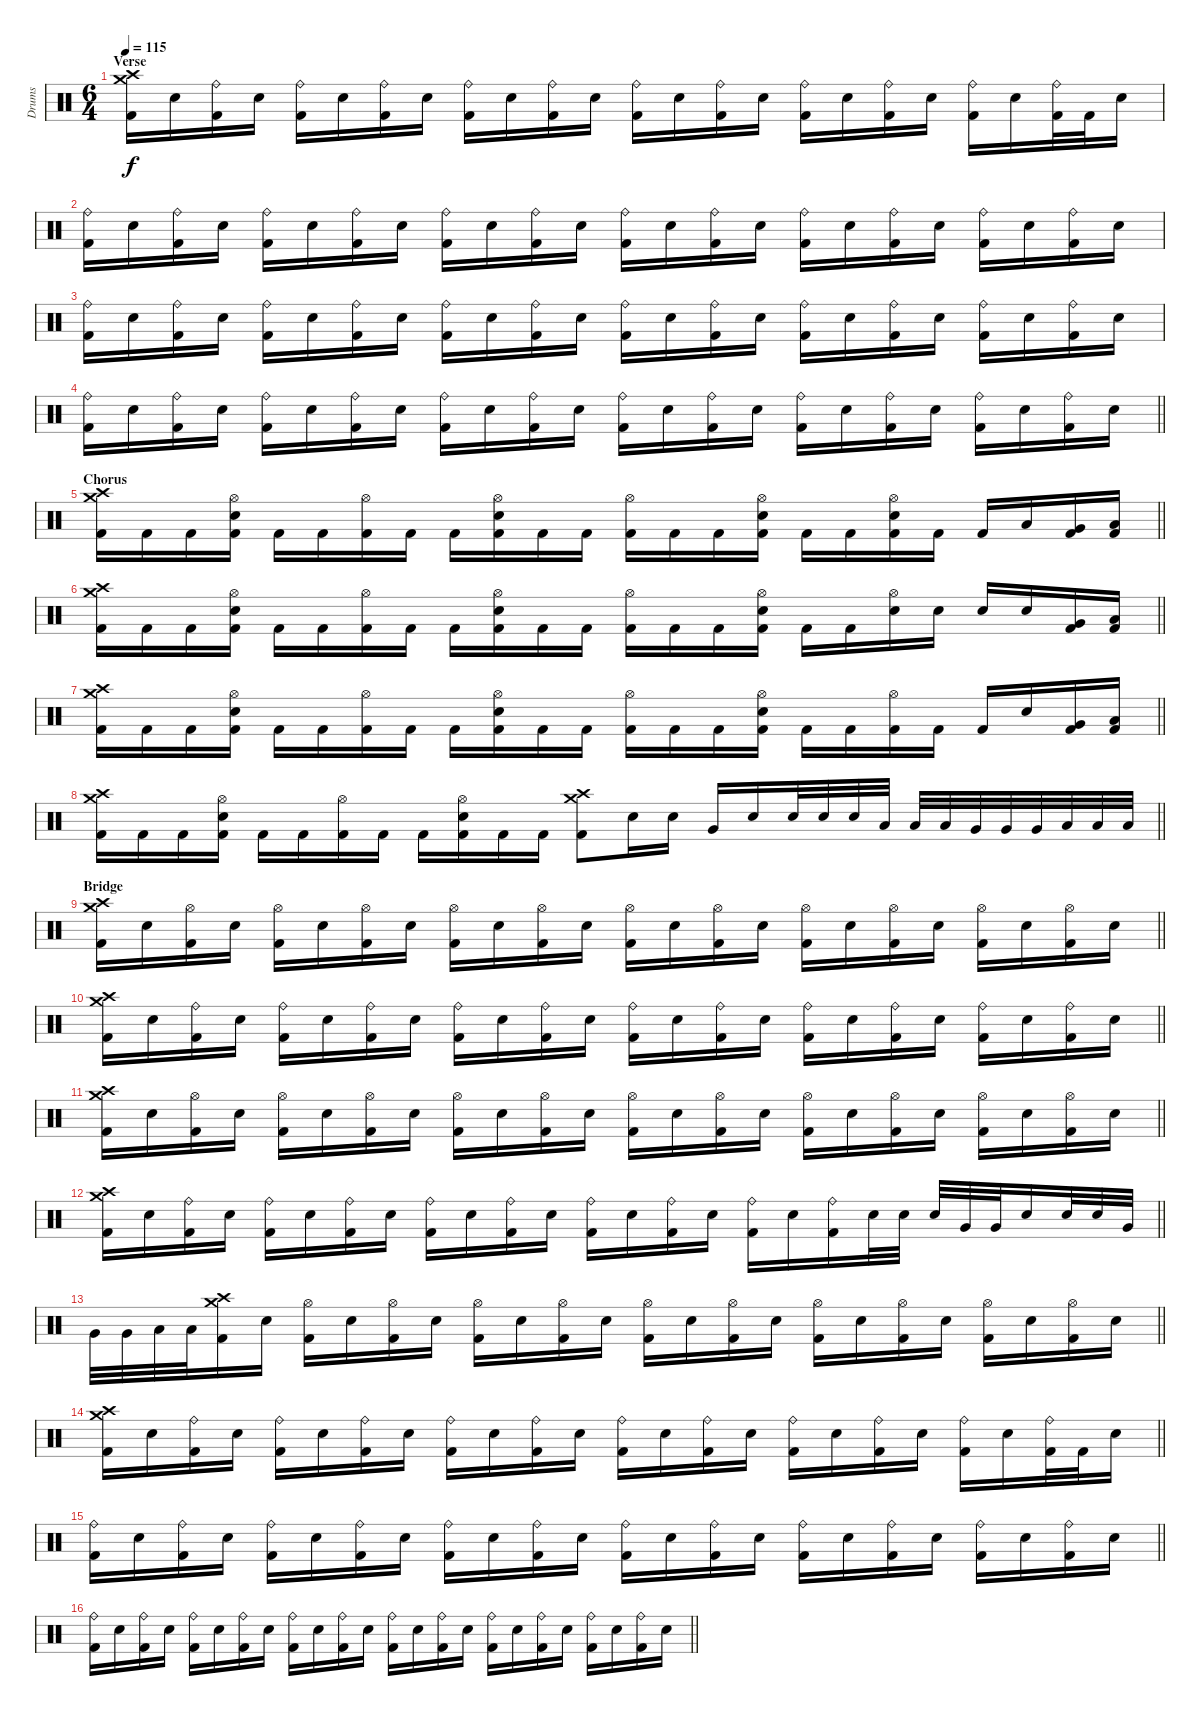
\track ("Drums" "Drums") {instrument percussion}
\staff {score}
\articulation defaults
\ts (6 4)
\section ("" "Verse")
\tempo 115
\clef neutral
\ks c
("Crash medium (hit)" "Crash high (hit)" "Kick (hit) 2").16{dy f} "Snare (hit) 2".16 ("Ride (bell)" "Kick (hit) 2").16 "Snare (hit) 2".16 ("Ride (bell)" "Kick (hit) 2").16 "Snare (hit) 2".16 ("Ride (bell)" "Kick (hit) 2").16 "Snare (hit) 2".16 ("Ride (bell)" "Kick (hit) 2").16 "Snare (hit) 2".16 ("Ride (bell)" "Kick (hit) 2").16 "Snare (hit) 2".16 ("Ride (bell)" "Kick (hit) 2").16 "Snare (hit) 2".16 ("Ride (bell)" "Kick (hit) 2").16 "Snare (hit) 2".16 ("Ride (bell)" "Kick (hit) 2").16 "Snare (hit) 2".16 ("Ride (bell)" "Kick (hit) 2").16 "Snare (hit) 2".16 ("Ride (bell)" "Kick (hit) 2").16 "Snare (hit) 2".16 ("Ride (bell)" "Kick (hit) 2").32 "Kick (hit) 2".32 "Snare (hit) 2".16 |
("Ride (bell)" "Kick (hit) 2").16 "Snare (hit) 2".16 ("Ride (bell)" "Kick (hit) 2").16 "Snare (hit) 2".16 ("Ride (bell)" "Kick (hit) 2").16 "Snare (hit) 2".16 ("Ride (bell)" "Kick (hit) 2").16 "Snare (hit) 2".16 ("Ride (bell)" "Kick (hit) 2").16 "Snare (hit) 2".16 ("Ride (bell)" "Kick (hit) 2").16 "Snare (hit) 2".16 ("Ride (bell)" "Kick (hit) 2").16 "Snare (hit) 2".16 ("Ride (bell)" "Kick (hit) 2").16 "Snare (hit) 2".16 ("Ride (bell)" "Kick (hit) 2").16 "Snare (hit) 2".16 ("Ride (bell)" "Kick (hit) 2").16 "Snare (hit) 2".16 ("Ride (bell)" "Kick (hit) 2").16 "Snare (hit) 2".16 ("Ride (bell)" "Kick (hit) 2").16 "Snare (hit) 2".16 |
("Ride (bell)" "Kick (hit) 2").16 "Snare (hit) 2".16 ("Ride (bell)" "Kick (hit) 2").16 "Snare (hit) 2".16 ("Ride (bell)" "Kick (hit) 2").16 "Snare (hit) 2".16 ("Ride (bell)" "Kick (hit) 2").16 "Snare (hit) 2".16 ("Ride (bell)" "Kick (hit) 2").16 "Snare (hit) 2".16 ("Ride (bell)" "Kick (hit) 2").16 "Snare (hit) 2".16 ("Ride (bell)" "Kick (hit) 2").16 "Snare (hit) 2".16 ("Ride (bell)" "Kick (hit) 2").16 "Snare (hit) 2".16 ("Ride (bell)" "Kick (hit) 2").16 "Snare (hit) 2".16 ("Ride (bell)" "Kick (hit) 2").16 "Snare (hit) 2".16 ("Ride (bell)" "Kick (hit) 2").16 "Snare (hit) 2".16 ("Ride (bell)" "Kick (hit) 2").16 "Snare (hit) 2".16 |
\barLineRight lightlight
("Ride (bell)" "Kick (hit) 2").16 "Snare (hit) 2".16 ("Ride (bell)" "Kick (hit) 2").16 "Snare (hit) 2".16 ("Ride (bell)" "Kick (hit) 2").16 "Snare (hit) 2".16 ("Ride (bell)" "Kick (hit) 2").16 "Snare (hit) 2".16 ("Ride (bell)" "Kick (hit) 2").16 "Snare (hit) 2".16 ("Ride (bell)" "Kick (hit) 2").16 "Snare (hit) 2".16 ("Ride (bell)" "Kick (hit) 2").16 "Snare (hit) 2".16 ("Ride (bell)" "Kick (hit) 2").16 "Snare (hit) 2".16 ("Ride (bell)" "Kick (hit) 2").16 "Snare (hit) 2".16 ("Ride (bell)" "Kick (hit) 2").16 "Snare (hit) 2".16 ("Ride (bell)" "Kick (hit) 2").16 "Snare (hit) 2".16 ("Ride (bell)" "Kick (hit) 2").16 "Snare (hit) 2".16 |
\section ("" "Chorus")
\barLineRight lightlight
("Crash medium (hit)" "Crash high (hit)" "Kick (hit) 2").16 "Kick (hit) 2".16 "Kick (hit) 2".16 ("Hi-Hat (open)" "Snare (hit) 2" "Kick (hit) 2").16 "Kick (hit) 2".16 "Kick (hit) 2".16 ("Hi-Hat (open)" "Kick (hit) 2").16 "Kick (hit) 2".16 "Kick (hit) 2".16 ("Hi-Hat (open)" "Snare (hit) 2" "Kick (hit) 2").16 "Kick (hit) 2".16 "Kick (hit) 2".16 ("Hi-Hat (open)" "Kick (hit) 2").16 "Kick (hit) 2".16 "Kick (hit) 2".16 ("Hi-Hat (open)" "Snare (hit) 2" "Kick (hit) 2").16 "Kick (hit) 2".16 "Kick (hit) 2".16 ("Hi-Hat (open)" "Snare (hit) 2" "Kick (hit) 2").16 "Kick (hit) 2".16 "Kick (hit) 2".16 "Low Tom (hit)".16 ("Very Low Tom (hit)" "Kick (hit) 2").16 ("Low Floor Tom (hit)" "Kick (hit) 2").16 |
\barLineRight lightlight
("Crash medium (hit)" "Crash high (hit)" "Kick (hit) 2").16 "Kick (hit) 2".16 "Kick (hit) 2".16 ("Hi-Hat (open)" "Snare (hit) 2" "Kick (hit) 2").16 "Kick (hit) 2".16 "Kick (hit) 2".16 ("Hi-Hat (open)" "Kick (hit) 2").16 "Kick (hit) 2".16 "Kick (hit) 2".16 ("Hi-Hat (open)" "Snare (hit) 2" "Kick (hit) 2").16 "Kick (hit) 2".16 "Kick (hit) 2".16 ("Hi-Hat (open)" "Kick (hit) 2").16 "Kick (hit) 2".16 "Kick (hit) 2".16 ("Hi-Hat (open)" "Snare (hit) 2" "Kick (hit) 2").16 "Kick (hit) 2".16 "Kick (hit) 2".16 ("Hi-Hat (open)" "Snare (hit) 2").16 "Snare (hit) 2".16 "Snare (hit) 2".16 "Snare (hit) 2".16 ("Very Low Tom (hit)" "Kick (hit) 2").16 ("Low Floor Tom (hit)" "Kick (hit) 2").16 |
\barLineRight lightlight
("Crash medium (hit)" "Crash high (hit)" "Kick (hit) 2").16 "Kick (hit) 2".16 "Kick (hit) 2".16 ("Hi-Hat (open)" "Snare (hit) 2" "Kick (hit) 2").16 "Kick (hit) 2".16 "Kick (hit) 2".16 ("Hi-Hat (open)" "Kick (hit) 2").16 "Kick (hit) 2".16 "Kick (hit) 2".16 ("Hi-Hat (open)" "Snare (hit) 2" "Kick (hit) 2").16 "Kick (hit) 2".16 "Kick (hit) 2".16 ("Hi-Hat (open)" "Kick (hit) 2").16 "Kick (hit) 2".16 "Kick (hit) 2".16 ("Hi-Hat (open)" "Snare (hit) 2" "Kick (hit) 2").16 "Kick (hit) 2".16 "Kick (hit) 2".16 ("Hi-Hat (open)" "Kick (hit) 2").16 "Kick (hit) 2".16 "Kick (hit) 2".16 "Snare (hit) 2".16 ("Very Low Tom (hit)" "Kick (hit) 2").16 ("Low Floor Tom (hit)" "Kick (hit) 2").16 |
\barLineRight lightlight
("Crash medium (hit)" "Crash high (hit)" "Kick (hit) 2").16 "Kick (hit) 2".16 "Kick (hit) 2".16 ("Hi-Hat (open)" "Snare (hit) 2" "Kick (hit) 2").16 "Kick (hit) 2".16 "Kick (hit) 2".16 ("Hi-Hat (open)" "Kick (hit) 2").16 "Kick (hit) 2".16 "Kick (hit) 2".16 ("Hi-Hat (open)" "Snare (hit) 2" "Kick (hit) 2").16 "Kick (hit) 2".16 "Kick (hit) 2".16 ("Crash medium (hit)" "Crash high (hit)" "Kick (hit) 2").8 "Snare (hit) 2".16 "Snare (hit) 2".16 "Very Low Tom (hit)".16 "Snare (hit) 2".16 "Snare (hit) 2".32 "Snare (hit) 2".32 "Snare (hit) 2".32 "Low Tom (hit)".32 "Low Tom (hit)".32 "Low Tom (hit)".32 "Very Low Tom (hit)".32 "Very Low Tom (hit)".32 "Very Low Tom (hit)".32 "Low Floor Tom (hit)".32 "Low Floor Tom (hit)".32 "Low Floor Tom (hit)".32 |
\section ("" "Bridge")
\barLineRight lightlight
("Crash medium (hit)" "Crash high (hit)" "Kick (hit) 2").16 "Snare (hit) 2".16 ("Hi-Hat (open)" "Kick (hit) 2").16 "Snare (hit) 2".16 ("Hi-Hat (open)" "Kick (hit) 2").16 "Snare (hit) 2".16 ("Hi-Hat (open)" "Kick (hit) 2").16 "Snare (hit) 2".16 ("Hi-Hat (open)" "Kick (hit) 2").16 "Snare (hit) 2".16 ("Hi-Hat (open)" "Kick (hit) 2").16 "Snare (hit) 2".16 ("Hi-Hat (open)" "Kick (hit) 2").16 "Snare (hit) 2".16 ("Hi-Hat (open)" "Kick (hit) 2").16 "Snare (hit) 2".16 ("Hi-Hat (open)" "Kick (hit) 2").16 "Snare (hit) 2".16 ("Hi-Hat (open)" "Kick (hit) 2").16 "Snare (hit) 2".16 ("Hi-Hat (open)" "Kick (hit) 2").16 "Snare (hit) 2".16 ("Hi-Hat (open)" "Kick (hit) 2").16 "Snare (hit) 2".16 |
\barLineRight lightlight
("Crash medium (hit)" "Crash high (hit)" "Kick (hit) 2").16 "Snare (hit) 2".16 ("Ride (bell)" "Kick (hit) 2").16 "Snare (hit) 2".16 ("Ride (bell)" "Kick (hit) 2").16 "Snare (hit) 2".16 ("Ride (bell)" "Kick (hit) 2").16 "Snare (hit) 2".16 ("Ride (bell)" "Kick (hit) 2").16 "Snare (hit) 2".16 ("Ride (bell)" "Kick (hit) 2").16 "Snare (hit) 2".16 ("Ride (bell)" "Kick (hit) 2").16 "Snare (hit) 2".16 ("Ride (bell)" "Kick (hit) 2").16 "Snare (hit) 2".16 ("Ride (bell)" "Kick (hit) 2").16 "Snare (hit) 2".16 ("Ride (bell)" "Kick (hit) 2").16 "Snare (hit) 2".16 ("Ride (bell)" "Kick (hit) 2").16 "Snare (hit) 2".16 ("Ride (bell)" "Kick (hit) 2").16 "Snare (hit) 2".16 |
\barLineRight lightlight
("Crash medium (hit)" "Crash high (hit)" "Kick (hit) 2").16 "Snare (hit) 2".16 ("Hi-Hat (open)" "Kick (hit) 2").16 "Snare (hit) 2".16 ("Hi-Hat (open)" "Kick (hit) 2").16 "Snare (hit) 2".16 ("Hi-Hat (open)" "Kick (hit) 2").16 "Snare (hit) 2".16 ("Hi-Hat (open)" "Kick (hit) 2").16 "Snare (hit) 2".16 ("Hi-Hat (open)" "Kick (hit) 2").16 "Snare (hit) 2".16 ("Hi-Hat (open)" "Kick (hit) 2").16 "Snare (hit) 2".16 ("Hi-Hat (open)" "Kick (hit) 2").16 "Snare (hit) 2".16 ("Hi-Hat (open)" "Kick (hit) 2").16 "Snare (hit) 2".16 ("Hi-Hat (open)" "Kick (hit) 2").16 "Snare (hit) 2".16 ("Hi-Hat (open)" "Kick (hit) 2").16 "Snare (hit) 2".16 ("Hi-Hat (open)" "Kick (hit) 2").16 "Snare (hit) 2".16 |
\barLineRight lightlight
("Crash medium (hit)" "Crash high (hit)" "Kick (hit) 2").16 "Snare (hit) 2".16 ("Ride (bell)" "Kick (hit) 2").16 "Snare (hit) 2".16 ("Ride (bell)" "Kick (hit) 2").16 "Snare (hit) 2".16 ("Ride (bell)" "Kick (hit) 2").16 "Snare (hit) 2".16 ("Ride (bell)" "Kick (hit) 2").16 "Snare (hit) 2".16 ("Ride (bell)" "Kick (hit) 2").16 "Snare (hit) 2".16 ("Ride (bell)" "Kick (hit) 2").16 "Snare (hit) 2".16 ("Ride (bell)" "Kick (hit) 2").16 "Snare (hit) 2".16 ("Ride (bell)" "Kick (hit) 2").16 "Snare (hit) 2".16 ("Ride (bell)" "Kick (hit) 2").16 "Snare (hit) 2".32 "Snare (hit) 2".32 "Snare (hit) 2".32 "Very Low Tom (hit)".32 "Very Low Tom (hit)".32 "Snare (hit) 2".16 "Snare (hit) 2".32 "Snare (hit) 2".32 "Very Low Tom (hit)".32 |
\barLineRight lightlight "Very Low Tom (hit)".32 "Very Low Tom (hit)".32 "Low Floor Tom (hit)".32 "Low Floor Tom (hit)".32
("Crash medium (hit)" "Crash high (hit)" "Kick (hit) 2").16 "Snare (hit) 2".16 ("Hi-Hat (open)" "Kick (hit) 2").16 "Snare (hit) 2".16 ("Hi-Hat (open)" "Kick (hit) 2").16 "Snare (hit) 2".16 ("Hi-Hat (open)" "Kick (hit) 2").16 "Snare (hit) 2".16 ("Hi-Hat (open)" "Kick (hit) 2").16 "Snare (hit) 2".16 ("Hi-Hat (open)" "Kick (hit) 2").16 "Snare (hit) 2".16 ("Hi-Hat (open)" "Kick (hit) 2").16 "Snare (hit) 2".16 ("Hi-Hat (open)" "Kick (hit) 2").16 "Snare (hit) 2".16 ("Hi-Hat (open)" "Kick (hit) 2").16 "Snare (hit) 2".16 ("Hi-Hat (open)" "Kick (hit) 2").16 "Snare (hit) 2".16 ("Hi-Hat (open)" "Kick (hit) 2").16 "Snare (hit) 2".16 |
\barLineRight lightlight
("Crash medium (hit)" "Crash high (hit)" "Kick (hit) 2").16 "Snare (hit) 2".16 ("Ride (bell)" "Kick (hit) 2").16 "Snare (hit) 2".16 ("Ride (bell)" "Kick (hit) 2").16 "Snare (hit) 2".16 ("Ride (bell)" "Kick (hit) 2").16 "Snare (hit) 2".16 ("Ride (bell)" "Kick (hit) 2").16 "Snare (hit) 2".16 ("Ride (bell)" "Kick (hit) 2").16 "Snare (hit) 2".16 ("Ride (bell)" "Kick (hit) 2").16 "Snare (hit) 2".16 ("Ride (bell)" "Kick (hit) 2").16 "Snare (hit) 2".16 ("Ride (bell)" "Kick (hit) 2").16 "Snare (hit) 2".16 ("Ride (bell)" "Kick (hit) 2").16 "Snare (hit) 2".16 ("Ride (bell)" "Kick (hit) 2").16 "Snare (hit) 2".16 ("Ride (bell)" "Kick (hit) 2").32 "Kick (hit) 2".32 "Snare (hit) 2".16 |
\barLineRight lightlight
("Ride (bell)" "Kick (hit) 2").16 "Snare (hit) 2".16 ("Ride (bell)" "Kick (hit) 2").16 "Snare (hit) 2".16 ("Ride (bell)" "Kick (hit) 2").16 "Snare (hit) 2".16 ("Ride (bell)" "Kick (hit) 2").16 "Snare (hit) 2".16 ("Ride (bell)" "Kick (hit) 2").16 "Snare (hit) 2".16 ("Ride (bell)" "Kick (hit) 2").16 "Snare (hit) 2".16 ("Ride (bell)" "Kick (hit) 2").16 "Snare (hit) 2".16 ("Ride (bell)" "Kick (hit) 2").16 "Snare (hit) 2".16 ("Ride (bell)" "Kick (hit) 2").16 "Snare (hit) 2".16 ("Ride (bell)" "Kick (hit) 2").16 "Snare (hit) 2".16 ("Ride (bell)" "Kick (hit) 2").16 "Snare (hit) 2".16 ("Ride (bell)" "Kick (hit) 2").16 "Snare (hit) 2".16 |
\barLineRight lightlight
("Ride (bell)" "Kick (hit) 2").16 "Snare (hit) 2".16 ("Ride (bell)" "Kick (hit) 2").16 "Snare (hit) 2".16 ("Ride (bell)" "Kick (hit) 2").16 "Snare (hit) 2".16 ("Ride (bell)" "Kick (hit) 2").16 "Snare (hit) 2".16 ("Ride (bell)" "Kick (hit) 2").16 "Snare (hit) 2".16 ("Ride (bell)" "Kick (hit) 2").16 "Snare (hit) 2".16 ("Ride (bell)" "Kick (hit) 2").16 "Snare (hit) 2".16 ("Ride (bell)" "Kick (hit) 2").16 "Snare (hit) 2".16 ("Ride (bell)" "Kick (hit) 2").16 "Snare (hit) 2".16 ("Ride (bell)" "Kick (hit) 2").16 "Snare (hit) 2".16 ("Ride (bell)" "Kick (hit) 2").16 "Snare (hit) 2".16 ("Ride (bell)" "Kick (hit) 2").16 "Snare (hit) 2".16
